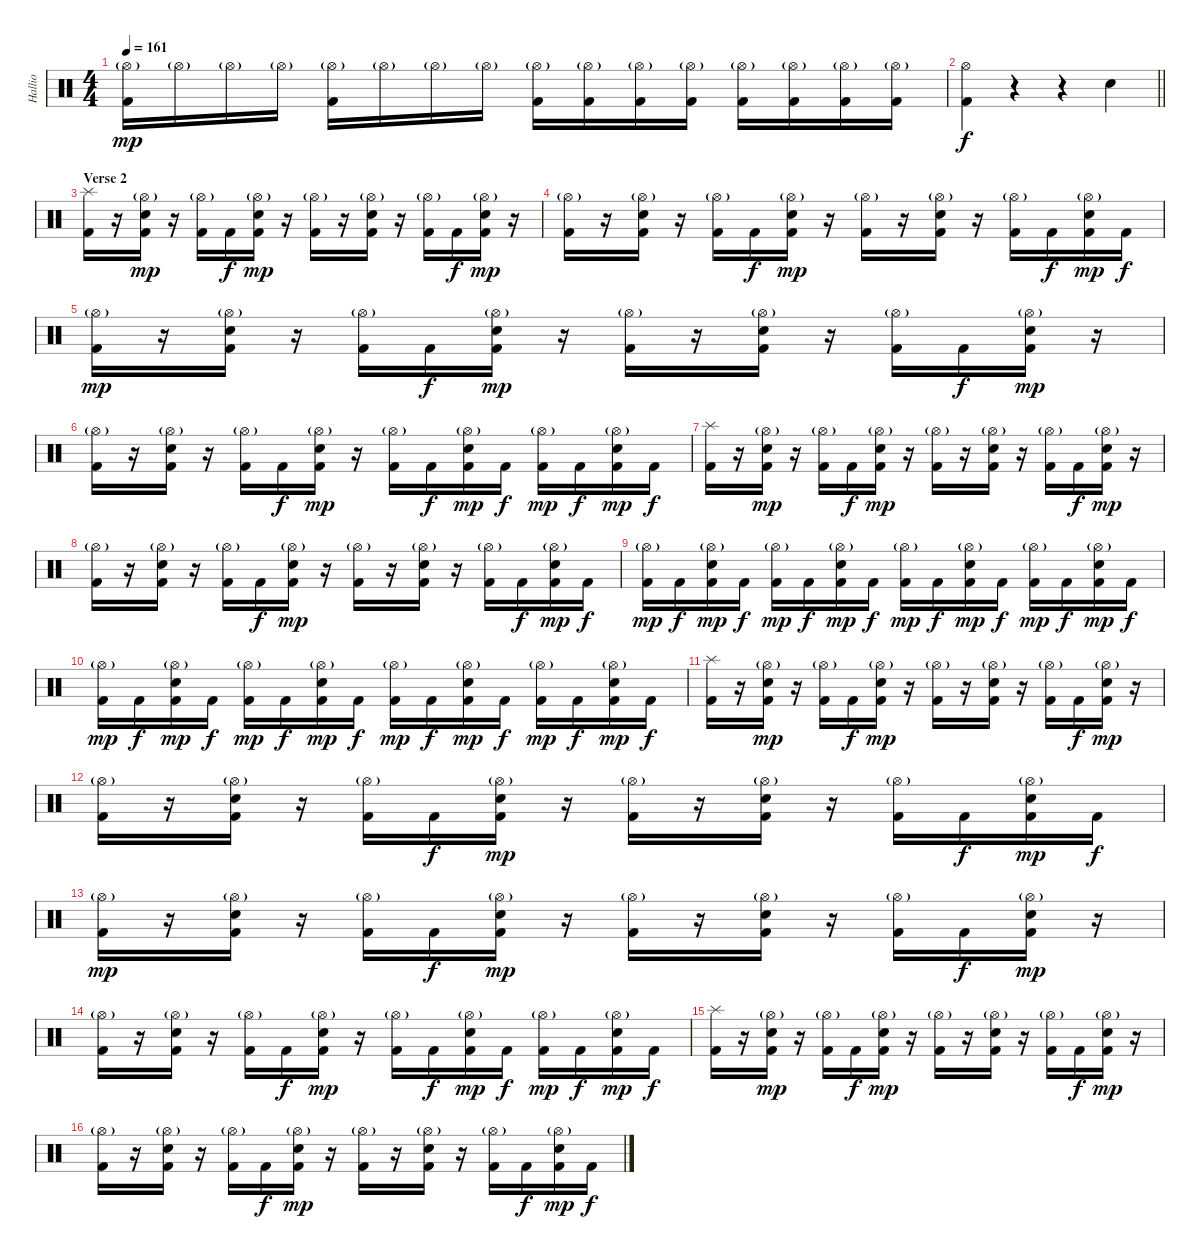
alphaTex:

\track ("Hallio" "Hallio") {instrument percussion}
\staff {score}
\articulation defaults
\ts (4 4)
\tempo 161
\clef neutral
\ks c
("Hi-Hat (open)"{g} "Kick (hit) 2").16{dy mp} "Hi-Hat (open)"{g}.16 "Hi-Hat (open)"{g}.16 "Hi-Hat (open)"{g}.16 ("Hi-Hat (open)"{g} "Kick (hit) 2").16 "Hi-Hat (open)"{g}.16 "Hi-Hat (open)"{g}.16 "Hi-Hat (open)"{g}.16 ("Hi-Hat (open)"{g} "Kick (hit) 2").16 ("Hi-Hat (open)"{g} "Kick (hit) 2").16 ("Hi-Hat (open)"{g} "Kick (hit) 2").16 ("Hi-Hat (open)"{g} "Kick (hit) 2").16 ("Hi-Hat (open)"{g} "Kick (hit) 2").16 ("Hi-Hat (open)"{g} "Kick (hit) 2").16 ("Hi-Hat (open)"{g} "Kick (hit) 2").16 ("Hi-Hat (open)"{g} "Kick (hit) 2").16 |
\barLineRight lightlight
("Kick (hit) 2" "Hi-Hat (open)").4{dy f} r.4 r.4 "Snare (hit) 2".4 |
\section ("" "Verse 2")
("Kick (hit) 2" "Splash (hit)").16 r.16 ("Kick (hit) 2" "Snare (hit) 2" "Hi-Hat (open)"{g}).16{dy mp} r.16 ("Kick (hit) 2" "Hi-Hat (open)"{g}).16 "Kick (hit) 2".16{dy f} ("Kick (hit) 2" "Snare (hit) 2" "Hi-Hat (open)"{g}).16{dy mp} r.16 ("Kick (hit) 2" "Hi-Hat (open)"{g}).16 r.16 ("Kick (hit) 2" "Snare (hit) 2" "Hi-Hat (open)"{g}).16 r.16 ("Kick (hit) 2" "Hi-Hat (open)"{g}).16 "Kick (hit) 2".16{dy f} ("Kick (hit) 2" "Snare (hit) 2" "Hi-Hat (open)"{g}).16{dy mp} r.16 |
("Kick (hit) 2" "Hi-Hat (open)"{g}).16 r.16 ("Kick (hit) 2" "Snare (hit) 2" "Hi-Hat (open)"{g}).16 r.16 ("Kick (hit) 2" "Hi-Hat (open)"{g}).16 "Kick (hit) 2".16{dy f} ("Kick (hit) 2" "Snare (hit) 2" "Hi-Hat (open)"{g}).16{dy mp} r.16 ("Kick (hit) 2" "Hi-Hat (open)"{g}).16 r.16 ("Kick (hit) 2" "Snare (hit) 2" "Hi-Hat (open)"{g}).16 r.16 ("Kick (hit) 2" "Hi-Hat (open)"{g}).16 "Kick (hit) 2".16{dy f} ("Kick (hit) 2" "Snare (hit) 2" "Hi-Hat (open)"{g}).16{dy mp} "Kick (hit) 2".16{dy f} |
("Kick (hit) 2" "Hi-Hat (open)"{g}).16{dy mp} r.16 ("Kick (hit) 2" "Snare (hit) 2" "Hi-Hat (open)"{g}).16 r.16 ("Kick (hit) 2" "Hi-Hat (open)"{g}).16 "Kick (hit) 2".16{dy f} ("Kick (hit) 2" "Snare (hit) 2" "Hi-Hat (open)"{g}).16{dy mp} r.16 ("Kick (hit) 2" "Hi-Hat (open)"{g}).16 r.16 ("Kick (hit) 2" "Snare (hit) 2" "Hi-Hat (open)"{g}).16 r.16 ("Kick (hit) 2" "Hi-Hat (open)"{g}).16 "Kick (hit) 2".16{dy f} ("Kick (hit) 2" "Snare (hit) 2" "Hi-Hat (open)"{g}).16{dy mp} r.16 |
("Kick (hit) 2" "Hi-Hat (open)"{g}).16 r.16 ("Kick (hit) 2" "Snare (hit) 2" "Hi-Hat (open)"{g}).16 r.16 ("Kick (hit) 2" "Hi-Hat (open)"{g}).16 "Kick (hit) 2".16{dy f} ("Kick (hit) 2" "Snare (hit) 2" "Hi-Hat (open)"{g}).16{dy mp} r.16 ("Kick (hit) 2" "Hi-Hat (open)"{g}).16 "Kick (hit) 2".16{dy f} ("Kick (hit) 2" "Snare (hit) 2" "Hi-Hat (open)"{g}).16{dy mp} "Kick (hit) 2".16{dy f} ("Kick (hit) 2" "Hi-Hat (open)"{g}).16{dy mp} "Kick (hit) 2".16{dy f} ("Kick (hit) 2" "Snare (hit) 2" "Hi-Hat (open)"{g}).16{dy mp} "Kick (hit) 2".16{dy f} |
("Kick (hit) 2" "Splash (hit)").16 r.16 ("Kick (hit) 2" "Snare (hit) 2" "Hi-Hat (open)"{g}).16{dy mp} r.16 ("Kick (hit) 2" "Hi-Hat (open)"{g}).16 "Kick (hit) 2".16{dy f} ("Kick (hit) 2" "Snare (hit) 2" "Hi-Hat (open)"{g}).16{dy mp} r.16 ("Kick (hit) 2" "Hi-Hat (open)"{g}).16 r.16 ("Kick (hit) 2" "Snare (hit) 2" "Hi-Hat (open)"{g}).16 r.16 ("Kick (hit) 2" "Hi-Hat (open)"{g}).16 "Kick (hit) 2".16{dy f} ("Kick (hit) 2" "Snare (hit) 2" "Hi-Hat (open)"{g}).16{dy mp} r.16 |
("Kick (hit) 2" "Hi-Hat (open)"{g}).16 r.16 ("Kick (hit) 2" "Snare (hit) 2" "Hi-Hat (open)"{g}).16 r.16 ("Kick (hit) 2" "Hi-Hat (open)"{g}).16 "Kick (hit) 2".16{dy f} ("Kick (hit) 2" "Snare (hit) 2" "Hi-Hat (open)"{g}).16{dy mp} r.16 ("Kick (hit) 2" "Hi-Hat (open)"{g}).16 r.16 ("Kick (hit) 2" "Snare (hit) 2" "Hi-Hat (open)"{g}).16 r.16 ("Kick (hit) 2" "Hi-Hat (open)"{g}).16 "Kick (hit) 2".16{dy f} ("Kick (hit) 2" "Snare (hit) 2" "Hi-Hat (open)"{g}).16{dy mp} "Kick (hit) 2".16{dy f} |
("Kick (hit) 2" "Hi-Hat (open)"{g}).16{dy mp} "Kick (hit) 2".16{dy f} ("Kick (hit) 2" "Snare (hit) 2" "Hi-Hat (open)"{g}).16{dy mp} "Kick (hit) 2".16{dy f} ("Kick (hit) 2" "Hi-Hat (open)"{g}).16{dy mp} "Kick (hit) 2".16{dy f} ("Kick (hit) 2" "Snare (hit) 2" "Hi-Hat (open)"{g}).16{dy mp} "Kick (hit) 2".16{dy f} ("Kick (hit) 2" "Hi-Hat (open)"{g}).16{dy mp} "Kick (hit) 2".16{dy f} ("Kick (hit) 2" "Snare (hit) 2" "Hi-Hat (open)"{g}).16{dy mp} "Kick (hit) 2".16{dy f} ("Kick (hit) 2" "Hi-Hat (open)"{g}).16{dy mp} "Kick (hit) 2".16{dy f} ("Kick (hit) 2" "Snare (hit) 2" "Hi-Hat (open)"{g}).16{dy mp} "Kick (hit) 2".16{dy f} |
("Kick (hit) 2" "Hi-Hat (open)"{g}).16{dy mp} "Kick (hit) 2".16{dy f} ("Kick (hit) 2" "Snare (hit) 2" "Hi-Hat (open)"{g}).16{dy mp} "Kick (hit) 2".16{dy f} ("Kick (hit) 2" "Hi-Hat (open)"{g}).16{dy mp} "Kick (hit) 2".16{dy f} ("Kick (hit) 2" "Snare (hit) 2" "Hi-Hat (open)"{g}).16{dy mp} "Kick (hit) 2".16{dy f} ("Kick (hit) 2" "Hi-Hat (open)"{g}).16{dy mp} "Kick (hit) 2".16{dy f} ("Kick (hit) 2" "Snare (hit) 2" "Hi-Hat (open)"{g}).16{dy mp} "Kick (hit) 2".16{dy f} ("Kick (hit) 2" "Hi-Hat (open)"{g}).16{dy mp} "Kick (hit) 2".16{dy f} ("Kick (hit) 2" "Snare (hit) 2" "Hi-Hat (open)"{g}).16{dy mp} "Kick (hit) 2".16{dy f} |
("Kick (hit) 2" "Splash (hit)").16 r.16 ("Kick (hit) 2" "Snare (hit) 2" "Hi-Hat (open)"{g}).16{dy mp} r.16 ("Kick (hit) 2" "Hi-Hat (open)"{g}).16 "Kick (hit) 2".16{dy f} ("Kick (hit) 2" "Snare (hit) 2" "Hi-Hat (open)"{g}).16{dy mp} r.16 ("Kick (hit) 2" "Hi-Hat (open)"{g}).16 r.16 ("Kick (hit) 2" "Snare (hit) 2" "Hi-Hat (open)"{g}).16 r.16 ("Kick (hit) 2" "Hi-Hat (open)"{g}).16 "Kick (hit) 2".16{dy f} ("Kick (hit) 2" "Snare (hit) 2" "Hi-Hat (open)"{g}).16{dy mp} r.16 |
("Kick (hit) 2" "Hi-Hat (open)"{g}).16 r.16 ("Kick (hit) 2" "Snare (hit) 2" "Hi-Hat (open)"{g}).16 r.16 ("Kick (hit) 2" "Hi-Hat (open)"{g}).16 "Kick (hit) 2".16{dy f} ("Kick (hit) 2" "Snare (hit) 2" "Hi-Hat (open)"{g}).16{dy mp} r.16 ("Kick (hit) 2" "Hi-Hat (open)"{g}).16 r.16 ("Kick (hit) 2" "Snare (hit) 2" "Hi-Hat (open)"{g}).16 r.16 ("Kick (hit) 2" "Hi-Hat (open)"{g}).16 "Kick (hit) 2".16{dy f} ("Kick (hit) 2" "Snare (hit) 2" "Hi-Hat (open)"{g}).16{dy mp} "Kick (hit) 2".16{dy f} |
("Kick (hit) 2" "Hi-Hat (open)"{g}).16{dy mp} r.16 ("Kick (hit) 2" "Snare (hit) 2" "Hi-Hat (open)"{g}).16 r.16 ("Kick (hit) 2" "Hi-Hat (open)"{g}).16 "Kick (hit) 2".16{dy f} ("Kick (hit) 2" "Snare (hit) 2" "Hi-Hat (open)"{g}).16{dy mp} r.16 ("Kick (hit) 2" "Hi-Hat (open)"{g}).16 r.16 ("Kick (hit) 2" "Snare (hit) 2" "Hi-Hat (open)"{g}).16 r.16 ("Kick (hit) 2" "Hi-Hat (open)"{g}).16 "Kick (hit) 2".16{dy f} ("Kick (hit) 2" "Snare (hit) 2" "Hi-Hat (open)"{g}).16{dy mp} r.16 |
("Kick (hit) 2" "Hi-Hat (open)"{g}).16 r.16 ("Kick (hit) 2" "Snare (hit) 2" "Hi-Hat (open)"{g}).16 r.16 ("Kick (hit) 2" "Hi-Hat (open)"{g}).16 "Kick (hit) 2".16{dy f} ("Kick (hit) 2" "Snare (hit) 2" "Hi-Hat (open)"{g}).16{dy mp} r.16 ("Kick (hit) 2" "Hi-Hat (open)"{g}).16 "Kick (hit) 2".16{dy f} ("Kick (hit) 2" "Snare (hit) 2" "Hi-Hat (open)"{g}).16{dy mp} "Kick (hit) 2".16{dy f} ("Kick (hit) 2" "Hi-Hat (open)"{g}).16{dy mp} "Kick (hit) 2".16{dy f} ("Kick (hit) 2" "Snare (hit) 2" "Hi-Hat (open)"{g}).16{dy mp} "Kick (hit) 2".16{dy f} |
("Kick (hit) 2" "Splash (hit)").16 r.16 ("Kick (hit) 2" "Snare (hit) 2" "Hi-Hat (open)"{g}).16{dy mp} r.16 ("Kick (hit) 2" "Hi-Hat (open)"{g}).16 "Kick (hit) 2".16{dy f} ("Kick (hit) 2" "Snare (hit) 2" "Hi-Hat (open)"{g}).16{dy mp} r.16 ("Kick (hit) 2" "Hi-Hat (open)"{g}).16 r.16 ("Kick (hit) 2" "Snare (hit) 2" "Hi-Hat (open)"{g}).16 r.16 ("Kick (hit) 2" "Hi-Hat (open)"{g}).16 "Kick (hit) 2".16{dy f} ("Kick (hit) 2" "Snare (hit) 2" "Hi-Hat (open)"{g}).16{dy mp} r.16 |
("Kick (hit) 2" "Hi-Hat (open)"{g}).16 r.16 ("Kick (hit) 2" "Snare (hit) 2" "Hi-Hat (open)"{g}).16 r.16 ("Kick (hit) 2" "Hi-Hat (open)"{g}).16 "Kick (hit) 2".16{dy f} ("Kick (hit) 2" "Snare (hit) 2" "Hi-Hat (open)"{g}).16{dy mp} r.16 ("Kick (hit) 2" "Hi-Hat (open)"{g}).16 r.16 ("Kick (hit) 2" "Snare (hit) 2" "Hi-Hat (open)"{g}).16 r.16 ("Kick (hit) 2" "Hi-Hat (open)"{g}).16 "Kick (hit) 2".16{dy f} ("Kick (hit) 2" "Snare (hit) 2" "Hi-Hat (open)"{g}).16{dy mp} "Kick (hit) 2".16{dy f}
